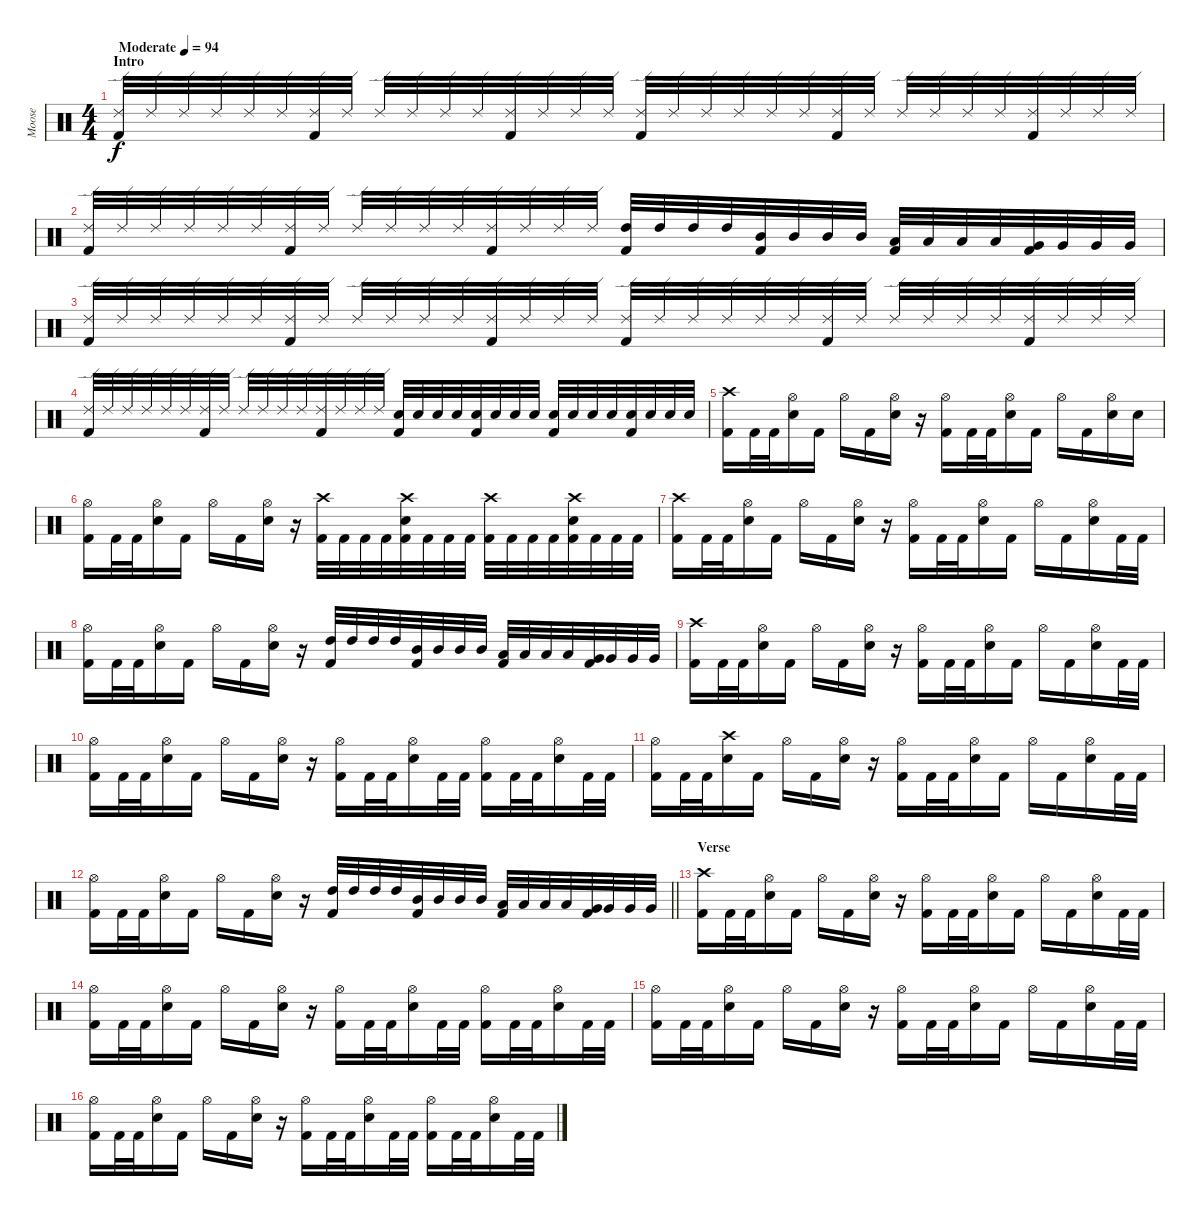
\track ("Moose" "Moose") {instrument percussion}
\staff {score}
\articulation defaults
\ts (4 4)
\section ("" "Intro")
\tempo (94 "Moderate")
\clef neutral
\ks c
("Ride (edge) 2" "Kick (hit) 2").32{dy f} "Ride (edge) 2".32 "Ride (edge) 2".32 "Ride (edge) 2".32 "Ride (edge) 2".32 "Ride (edge) 2".32 ("Ride (edge) 2" "Kick (hit) 2").32 "Ride (edge) 2".32 "Ride (edge) 2".32 "Ride (edge) 2".32 "Ride (edge) 2".32 "Ride (edge) 2".32 ("Ride (edge) 2" "Kick (hit) 2").32 "Ride (edge) 2".32 "Ride (edge) 2".32 "Ride (edge) 2".32 ("Ride (edge) 2" "Kick (hit) 2").32 "Ride (edge) 2".32 "Ride (edge) 2".32 "Ride (edge) 2".32 "Ride (edge) 2".32 "Ride (edge) 2".32 ("Ride (edge) 2" "Kick (hit) 2").32 "Ride (edge) 2".32 "Ride (edge) 2".32 "Ride (edge) 2".32 "Ride (edge) 2".32 "Ride (edge) 2".32 ("Ride (edge) 2" "Kick (hit) 2").32 "Ride (edge) 2".32 "Ride (edge) 2".32 "Ride (edge) 2".32 |
("Ride (edge) 2" "Kick (hit) 2").32 "Ride (edge) 2".32 "Ride (edge) 2".32 "Ride (edge) 2".32 "Ride (edge) 2".32 "Ride (edge) 2".32 ("Ride (edge) 2" "Kick (hit) 2").32 "Ride (edge) 2".32 "Ride (edge) 2".32 "Ride (edge) 2".32 "Ride (edge) 2".32 "Ride (edge) 2".32 ("Ride (edge) 2" "Kick (hit) 2").32 "Ride (edge) 2".32 "Ride (edge) 2".32 "Ride (edge) 2".32 ("High Tom (hit)" "Kick (hit) 2").32 "High Tom (hit)".32 "High Tom (hit)".32 "High Tom (hit)".32 ("Mid Tom (hit)" "Kick (hit) 2").32 "Mid Tom (hit)".32 "Mid Tom (hit)".32 "Mid Tom (hit)".32 ("Low Tom (hit)" "Kick (hit) 2").32 "Low Tom (hit)".32 "Low Tom (hit)".32 "Low Tom (hit)".32 ("Very Low Tom (hit)" "Kick (hit) 2").32 "Very Low Tom (hit)".32 "Very Low Tom (hit)".32 "Very Low Tom (hit)".32 |
("Ride (edge) 2" "Kick (hit) 2").32 "Ride (edge) 2".32 "Ride (edge) 2".32 "Ride (edge) 2".32 "Ride (edge) 2".32 "Ride (edge) 2".32 ("Ride (edge) 2" "Kick (hit) 2").32 "Ride (edge) 2".32 "Ride (edge) 2".32 "Ride (edge) 2".32 "Ride (edge) 2".32 "Ride (edge) 2".32 ("Ride (edge) 2" "Kick (hit) 2").32 "Ride (edge) 2".32 "Ride (edge) 2".32 "Ride (edge) 2".32 ("Ride (edge) 2" "Kick (hit) 2").32 "Ride (edge) 2".32 "Ride (edge) 2".32 "Ride (edge) 2".32 "Ride (edge) 2".32 "Ride (edge) 2".32 ("Ride (edge) 2" "Kick (hit) 2").32 "Ride (edge) 2".32 "Ride (edge) 2".32 "Ride (edge) 2".32 "Ride (edge) 2".32 "Ride (edge) 2".32 ("Ride (edge) 2" "Kick (hit) 2").32 "Ride (edge) 2".32 "Ride (edge) 2".32 "Ride (edge) 2".32 |
("Ride (edge) 2" "Kick (hit) 2").32 "Ride (edge) 2".32 "Ride (edge) 2".32 "Ride (edge) 2".32 "Ride (edge) 2".32 "Ride (edge) 2".32 ("Ride (edge) 2" "Kick (hit) 2").32 "Ride (edge) 2".32 "Ride (edge) 2".32 "Ride (edge) 2".32 "Ride (edge) 2".32 "Ride (edge) 2".32 ("Ride (edge) 2" "Kick (hit) 2").32 "Ride (edge) 2".32 "Ride (edge) 2".32 "Ride (edge) 2".32 ("Electric Snare (hit)" "Kick (hit) 2").32 "Electric Snare (hit)".32 "Electric Snare (hit)".32 "Electric Snare (hit)".32 ("Electric Snare (hit)" "Kick (hit) 2").32 "Electric Snare (hit)".32 "Electric Snare (hit)".32 "Electric Snare (hit)".32 ("Electric Snare (hit)" "Kick (hit) 2").32 "Electric Snare (hit)".32 "Electric Snare (hit)".32 "Electric Snare (hit)".32 ("Electric Snare (hit)" "Kick (hit) 2").32 "Electric Snare (hit)".32 "Electric Snare (hit)".32 "Electric Snare (hit)".32 |
("Crash high (hit)" "Kick (hit) 2").16 "Kick (hit) 2".32 "Kick (hit) 2".32 ("Hi-Hat (open)" "Electric Snare (hit)").16 "Kick (hit) 2".16 "Hi-Hat (open)".16 "Kick (hit) 2".16 ("Hi-Hat (open)" "Electric Snare (hit)").16 r.16 ("Hi-Hat (open)" "Kick (hit) 2").16 "Kick (hit) 2".32 "Kick (hit) 2".32 ("Hi-Hat (open)" "Electric Snare (hit)").16 "Kick (hit) 2".16 "Hi-Hat (open)".16 "Kick (hit) 2".16 ("Hi-Hat (open)" "Electric Snare (hit)").16 "Electric Snare (hit)".16 |
("Hi-Hat (open)" "Kick (hit) 2").16 "Kick (hit) 2".32 "Kick (hit) 2".32 ("Hi-Hat (open)" "Electric Snare (hit)").16 "Kick (hit) 2".16 "Hi-Hat (open)".16 "Kick (hit) 2".16 ("Hi-Hat (open)" "Electric Snare (hit)").16 r.16 ("Crash high (hit)" "Kick (hit) 2").32 "Kick (hit) 2".32 "Kick (hit) 2".32 "Kick (hit) 2".32 ("Crash high (hit)" "Electric Snare (hit)" "Kick (hit) 2").32 "Kick (hit) 2".32 "Kick (hit) 2".32 "Kick (hit) 2".32 ("Crash high (hit)" "Kick (hit) 2").32 "Kick (hit) 2".32 "Kick (hit) 2".32 "Kick (hit) 2".32 ("Crash high (hit)" "Electric Snare (hit)" "Kick (hit) 2").32 "Kick (hit) 2".32 "Kick (hit) 2".32 "Kick (hit) 2".32 |
("Crash high (hit)" "Kick (hit) 2").16 "Kick (hit) 2".32 "Kick (hit) 2".32 ("Hi-Hat (open)" "Electric Snare (hit)").16 "Kick (hit) 2".16 "Hi-Hat (open)".16 "Kick (hit) 2".16 ("Hi-Hat (open)" "Electric Snare (hit)").16 r.16 ("Hi-Hat (open)" "Kick (hit) 2").16 "Kick (hit) 2".32 "Kick (hit) 2".32 ("Hi-Hat (open)" "Electric Snare (hit)").16 "Kick (hit) 2".16 "Hi-Hat (open)".16 "Kick (hit) 2".16 ("Hi-Hat (open)" "Electric Snare (hit)").16 "Kick (hit) 2".32 "Kick (hit) 2".32 |
("Hi-Hat (open)" "Kick (hit) 2").16 "Kick (hit) 2".32 "Kick (hit) 2".32 ("Hi-Hat (open)" "Electric Snare (hit)").16 "Kick (hit) 2".16 "Hi-Hat (open)".16 "Kick (hit) 2".16 ("Hi-Hat (open)" "Electric Snare (hit)").16 r.16 ("High Tom (hit)" "Kick (hit) 2").32 "High Tom (hit)".32 "High Tom (hit)".32 "High Tom (hit)".32 ("Mid Tom (hit)" "Kick (hit) 2").32 "Mid Tom (hit)".32 "Mid Tom (hit)".32 "Mid Tom (hit)".32 ("Low Tom (hit)" "Kick (hit) 2").32 "Low Tom (hit)".32 "Low Tom (hit)".32 "Low Tom (hit)".32 ("Very Low Tom (hit)" "Kick (hit) 2").32 "Very Low Tom (hit)".32 "Very Low Tom (hit)".32 "Very Low Tom (hit)".32 |
("Crash high (hit)" "Kick (hit) 2").16 "Kick (hit) 2".32 "Kick (hit) 2".32 ("Hi-Hat (open)" "Electric Snare (hit)").16 "Kick (hit) 2".16 "Hi-Hat (open)".16 "Kick (hit) 2".16 ("Hi-Hat (open)" "Electric Snare (hit)").16 r.16 ("Hi-Hat (open)" "Kick (hit) 2").16 "Kick (hit) 2".32 "Kick (hit) 2".32 ("Hi-Hat (open)" "Electric Snare (hit)").16 "Kick (hit) 2".16 "Hi-Hat (open)".16 "Kick (hit) 2".16 ("Hi-Hat (open)" "Electric Snare (hit)").16 "Kick (hit) 2".32 "Kick (hit) 2".32 |
("Hi-Hat (open)" "Kick (hit) 2").16 "Kick (hit) 2".32 "Kick (hit) 2".32 ("Hi-Hat (open)" "Electric Snare (hit)").16 "Kick (hit) 2".16 "Hi-Hat (open)".16 "Kick (hit) 2".16 ("Hi-Hat (open)" "Electric Snare (hit)").16 r.16 ("Hi-Hat (open)" "Kick (hit) 2").16 "Kick (hit) 2".32 "Kick (hit) 2".32 ("Hi-Hat (open)" "Electric Snare (hit)").16 "Kick (hit) 2".32 "Kick (hit) 2".32 ("Hi-Hat (open)" "Kick (hit) 2").16 "Kick (hit) 2".32 "Kick (hit) 2".32 ("Hi-Hat (open)" "Electric Snare (hit)").16 "Kick (hit) 2".32 "Kick (hit) 2".32 |
("Hi-Hat (open)" "Kick (hit) 2").16 "Kick (hit) 2".32 "Kick (hit) 2".32 ("Crash high (hit)" "Electric Snare (hit)").16 "Kick (hit) 2".16 "Hi-Hat (open)".16 "Kick (hit) 2".16 ("Hi-Hat (open)" "Electric Snare (hit)").16 r.16 ("Hi-Hat (open)" "Kick (hit) 2").16 "Kick (hit) 2".32 "Kick (hit) 2".32 ("Hi-Hat (open)" "Electric Snare (hit)").16 "Kick (hit) 2".16 "Hi-Hat (open)".16 "Kick (hit) 2".16 ("Hi-Hat (open)" "Electric Snare (hit)").16 "Kick (hit) 2".32 "Kick (hit) 2".32 |
\barLineRight lightlight
("Hi-Hat (open)" "Kick (hit) 2").16 "Kick (hit) 2".32 "Kick (hit) 2".32 ("Hi-Hat (open)" "Electric Snare (hit)").16 "Kick (hit) 2".16 "Hi-Hat (open)".16 "Kick (hit) 2".16 ("Hi-Hat (open)" "Electric Snare (hit)").16 r.16 ("High Tom (hit)" "Kick (hit) 2").32 "High Tom (hit)".32 "High Tom (hit)".32 "High Tom (hit)".32 ("Mid Tom (hit)" "Kick (hit) 2").32 "Mid Tom (hit)".32 "Mid Tom (hit)".32 "Mid Tom (hit)".32 ("Low Tom (hit)" "Kick (hit) 2").32 "Low Tom (hit)".32 "Low Tom (hit)".32 "Low Tom (hit)".32 ("Very Low Tom (hit)" "Kick (hit) 2").32 "Very Low Tom (hit)".32 "Very Low Tom (hit)".32 "Very Low Tom (hit)".32 |
\section ("" "Verse")
("Crash high (hit)" "Kick (hit) 2").16 "Kick (hit) 2".32 "Kick (hit) 2".32 ("Hi-Hat (open)" "Electric Snare (hit)").16 "Kick (hit) 2".16 "Hi-Hat (open)".16 "Kick (hit) 2".16 ("Hi-Hat (open)" "Electric Snare (hit)").16 r.16 ("Hi-Hat (open)" "Kick (hit) 2").16 "Kick (hit) 2".32 "Kick (hit) 2".32 ("Hi-Hat (open)" "Electric Snare (hit)").16 "Kick (hit) 2".16 "Hi-Hat (open)".16 "Kick (hit) 2".16 ("Hi-Hat (open)" "Electric Snare (hit)").16 "Kick (hit) 2".32 "Kick (hit) 2".32 |
("Hi-Hat (open)" "Kick (hit) 2").16 "Kick (hit) 2".32 "Kick (hit) 2".32 ("Hi-Hat (open)" "Electric Snare (hit)").16 "Kick (hit) 2".16 "Hi-Hat (open)".16 "Kick (hit) 2".16 ("Hi-Hat (open)" "Electric Snare (hit)").16 r.16 ("Hi-Hat (open)" "Kick (hit) 2").16 "Kick (hit) 2".32 "Kick (hit) 2".32 ("Hi-Hat (open)" "Electric Snare (hit)").16 "Kick (hit) 2".32 "Kick (hit) 2".32 ("Hi-Hat (open)" "Kick (hit) 2").16 "Kick (hit) 2".32 "Kick (hit) 2".32 ("Hi-Hat (open)" "Electric Snare (hit)").16 "Kick (hit) 2".32 "Kick (hit) 2".32 |
("Hi-Hat (open)" "Kick (hit) 2").16 "Kick (hit) 2".32 "Kick (hit) 2".32 ("Hi-Hat (open)" "Electric Snare (hit)").16 "Kick (hit) 2".16 "Hi-Hat (open)".16 "Kick (hit) 2".16 ("Hi-Hat (open)" "Electric Snare (hit)").16 r.16 ("Hi-Hat (open)" "Kick (hit) 2").16 "Kick (hit) 2".32 "Kick (hit) 2".32 ("Hi-Hat (open)" "Electric Snare (hit)").16 "Kick (hit) 2".16 "Hi-Hat (open)".16 "Kick (hit) 2".16 ("Hi-Hat (open)" "Electric Snare (hit)").16 "Kick (hit) 2".32 "Kick (hit) 2".32 |
("Hi-Hat (open)" "Kick (hit) 2").16 "Kick (hit) 2".32 "Kick (hit) 2".32 ("Hi-Hat (open)" "Electric Snare (hit)").16 "Kick (hit) 2".16 "Hi-Hat (open)".16 "Kick (hit) 2".16 ("Hi-Hat (open)" "Electric Snare (hit)").16 r.16 ("Hi-Hat (open)" "Kick (hit) 2").16 "Kick (hit) 2".32 "Kick (hit) 2".32 ("Hi-Hat (open)" "Electric Snare (hit)").16 "Kick (hit) 2".32 "Kick (hit) 2".32 ("Hi-Hat (open)" "Kick (hit) 2").16 "Kick (hit) 2".32 "Kick (hit) 2".32 ("Hi-Hat (open)" "Electric Snare (hit)").16 "Kick (hit) 2".32 "Kick (hit) 2".32
